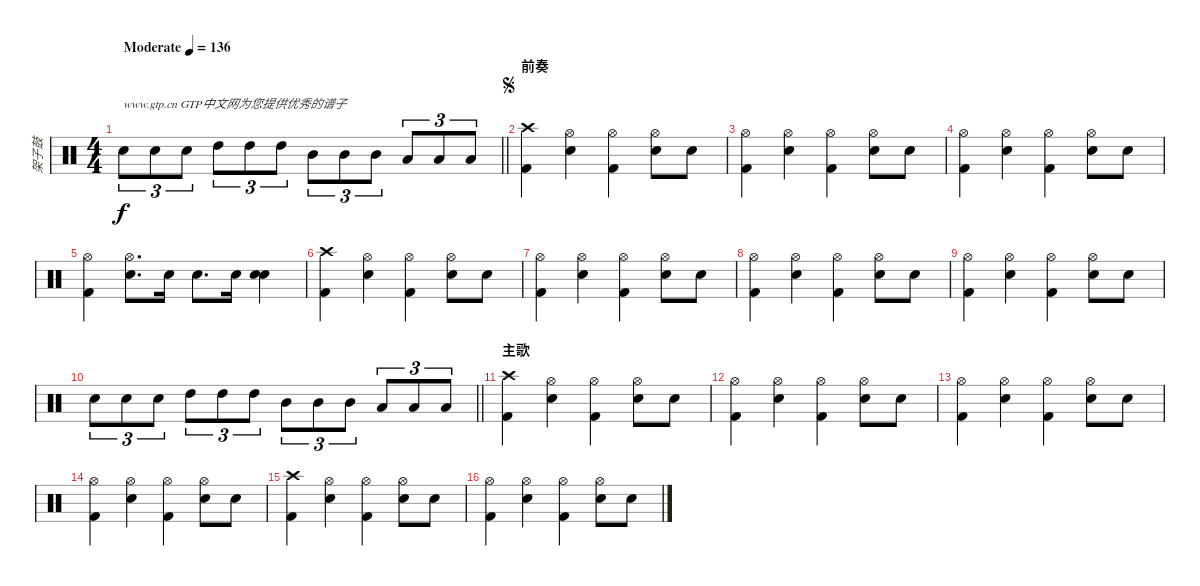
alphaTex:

\track ("架子鼓" "架子鼓") {instrument percussion}
\staff {score}
\articulation defaults
\ts (4 4)
\tempo (136 "Moderate")
\clef neutral
\barLineRight lightlight
\ks c "Electric Snare (hit)".8{tu (3 2) txt "www.gtp.cn GTP中文网为您提供优秀的谱子" dy f} "Electric Snare (hit)".8{tu (3 2)} "Electric Snare (hit)".8{tu (3 2)} "High Tom (hit)".8{tu (3 2)} "High Tom (hit)".8{tu (3 2)} "High Tom (hit)".8{tu (3 2)} "Mid Tom (hit)".8{tu (3 2)} "Mid Tom (hit)".8{tu (3 2)} "Mid Tom (hit)".8{tu (3 2)} "Low Tom (hit)".8{tu (3 2)} "Low Tom (hit)".8{tu (3 2)} "Low Tom (hit)".8{tu (3 2)}
|
\section ("" "前奏")
\jump segno
("Crash high (hit)" "Kick (hit) 2").4 ("Hi-Hat (open)" "Electric Snare (hit)").4 ("Hi-Hat (open)" "Kick (hit) 2").4 ("Hi-Hat (open)" "Electric Snare (hit)").8 "Electric Snare (hit)".8 |
("Hi-Hat (open)" "Kick (hit) 2").4 ("Hi-Hat (open)" "Electric Snare (hit)").4 ("Hi-Hat (open)" "Kick (hit) 2").4 ("Hi-Hat (open)" "Electric Snare (hit)").8 "Electric Snare (hit)".8 |
("Hi-Hat (open)" "Kick (hit) 2").4 ("Hi-Hat (open)" "Electric Snare (hit)").4 ("Hi-Hat (open)" "Kick (hit) 2").4 ("Hi-Hat (open)" "Electric Snare (hit)").8 "Electric Snare (hit)".8 |
("Hi-Hat (open)" "Kick (hit) 2").4 ("Hi-Hat (open)" "Electric Snare (hit)").8{d} "Electric Snare (hit)".16 "Electric Snare (hit)".8{d} "Electric Snare (hit)".16 ("Electric Snare (hit)" "Electric Snare (hit)").4 |
("Crash high (hit)" "Kick (hit) 2").4 ("Hi-Hat (open)" "Electric Snare (hit)").4 ("Hi-Hat (open)" "Kick (hit) 2").4 ("Hi-Hat (open)" "Electric Snare (hit)").8 "Electric Snare (hit)".8 |
("Hi-Hat (open)" "Kick (hit) 2").4 ("Hi-Hat (open)" "Electric Snare (hit)").4 ("Hi-Hat (open)" "Kick (hit) 2").4 ("Hi-Hat (open)" "Electric Snare (hit)").8 "Electric Snare (hit)".8 |
("Hi-Hat (open)" "Kick (hit) 2").4 ("Hi-Hat (open)" "Electric Snare (hit)").4 ("Hi-Hat (open)" "Kick (hit) 2").4 ("Hi-Hat (open)" "Electric Snare (hit)").8 "Electric Snare (hit)".8 |
("Hi-Hat (open)" "Kick (hit) 2").4 ("Hi-Hat (open)" "Electric Snare (hit)").4 ("Hi-Hat (open)" "Kick (hit) 2").4 ("Hi-Hat (open)" "Electric Snare (hit)").8 "Electric Snare (hit)".8 |
\barLineRight lightlight "Electric Snare (hit)".8{tu (3 2)} "Electric Snare (hit)".8{tu (3 2)} "Electric Snare (hit)".8{tu (3 2)} "High Tom (hit)".8{tu (3 2)} "High Tom (hit)".8{tu (3 2)} "High Tom (hit)".8{tu (3 2)} "Mid Tom (hit)".8{tu (3 2)} "Mid Tom (hit)".8{tu (3 2)} "Mid Tom (hit)".8{tu (3 2)} "Low Tom (hit)".8{tu (3 2)} "Low Tom (hit)".8{tu (3 2)} "Low Tom (hit)".8{tu (3 2)}
|
\section ("" "主歌")
("Crash high (hit)" "Kick (hit) 2").4 ("Hi-Hat (open)" "Electric Snare (hit)").4 ("Hi-Hat (open)" "Kick (hit) 2").4 ("Hi-Hat (open)" "Electric Snare (hit)").8 "Electric Snare (hit)".8 |
("Hi-Hat (open)" "Kick (hit) 2").4 ("Hi-Hat (open)" "Electric Snare (hit)").4 ("Hi-Hat (open)" "Kick (hit) 2").4 ("Hi-Hat (open)" "Electric Snare (hit)").8 "Electric Snare (hit)".8 |
("Hi-Hat (open)" "Kick (hit) 2").4 ("Hi-Hat (open)" "Electric Snare (hit)").4 ("Hi-Hat (open)" "Kick (hit) 2").4 ("Hi-Hat (open)" "Electric Snare (hit)").8 "Electric Snare (hit)".8 |
("Hi-Hat (open)" "Kick (hit) 2").4 ("Hi-Hat (open)" "Electric Snare (hit)").4 ("Hi-Hat (open)" "Kick (hit) 2").4 ("Hi-Hat (open)" "Electric Snare (hit)").8 "Electric Snare (hit)".8 |
("Crash high (hit)" "Kick (hit) 2").4 ("Hi-Hat (open)" "Electric Snare (hit)").4 ("Hi-Hat (open)" "Kick (hit) 2").4 ("Hi-Hat (open)" "Electric Snare (hit)").8 "Electric Snare (hit)".8 |
("Hi-Hat (open)" "Kick (hit) 2").4 ("Hi-Hat (open)" "Electric Snare (hit)").4 ("Hi-Hat (open)" "Kick (hit) 2").4 ("Hi-Hat (open)" "Electric Snare (hit)").8 "Electric Snare (hit)".8
